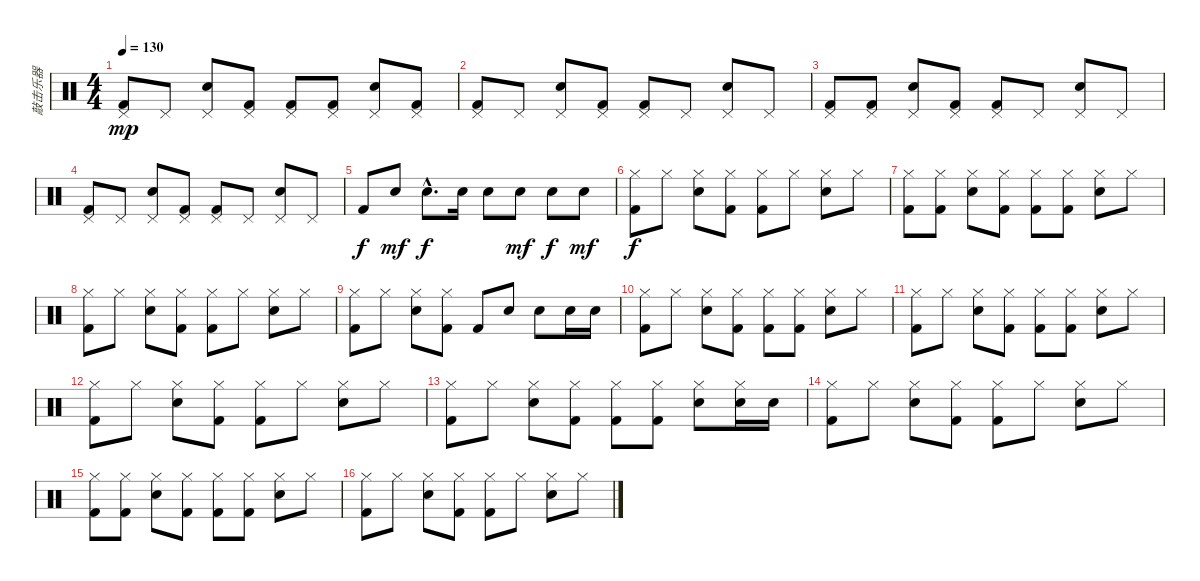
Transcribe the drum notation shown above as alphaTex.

\track ("敲击乐器" "敲击乐器") {instrument percussion}
\staff {score}
\articulation defaults
\ts (4 4)
\tempo 130
\clef neutral
\ks c
("Pedal Hi-Hat (hit)" "Kick (hit) 2").8{dy mp} "Pedal Hi-Hat (hit)".8 ("Pedal Hi-Hat (hit)" "Electric Snare (hit)").8 ("Pedal Hi-Hat (hit)" "Kick (hit) 2").8 ("Pedal Hi-Hat (hit)" "Kick (hit) 2").8 ("Pedal Hi-Hat (hit)" "Kick (hit) 2").8 ("Pedal Hi-Hat (hit)" "Electric Snare (hit)").8 ("Pedal Hi-Hat (hit)" "Kick (hit) 2").8 |
("Pedal Hi-Hat (hit)" "Kick (hit) 2").8 "Pedal Hi-Hat (hit)".8 ("Pedal Hi-Hat (hit)" "Electric Snare (hit)").8 ("Pedal Hi-Hat (hit)" "Kick (hit) 2").8 ("Pedal Hi-Hat (hit)" "Kick (hit) 2").8 "Pedal Hi-Hat (hit)".8 ("Pedal Hi-Hat (hit)" "Electric Snare (hit)").8 "Pedal Hi-Hat (hit)".8 |
("Pedal Hi-Hat (hit)" "Kick (hit) 2").8 ("Pedal Hi-Hat (hit)" "Kick (hit) 2").8 ("Pedal Hi-Hat (hit)" "Electric Snare (hit)").8 ("Pedal Hi-Hat (hit)" "Kick (hit) 2").8 ("Pedal Hi-Hat (hit)" "Kick (hit) 2").8 "Pedal Hi-Hat (hit)".8 ("Pedal Hi-Hat (hit)" "Electric Snare (hit)").8 "Pedal Hi-Hat (hit)".8 |
("Pedal Hi-Hat (hit)" "Kick (hit) 2").8 "Pedal Hi-Hat (hit)".8 ("Pedal Hi-Hat (hit)" "Electric Snare (hit)").8 ("Pedal Hi-Hat (hit)" "Kick (hit) 2").8 ("Pedal Hi-Hat (hit)" "Kick (hit) 2").8 "Pedal Hi-Hat (hit)".8 ("Pedal Hi-Hat (hit)" "Electric Snare (hit)").8 "Pedal Hi-Hat (hit)".8 |
"Kick (hit) 2".8{dy f} "Electric Snare (hit)".8{dy mf} "Electric Snare (hit)"{hac}.8{d dy f} "Electric Snare (hit)".16 "Electric Snare (hit)".8 "Electric Snare (hit)".8{dy mf} "Electric Snare (hit)".8{dy f} "Electric Snare (hit)".8{dy mf} |
("Hi-Hat (closed)" "Kick (hit) 2").8{dy f} "Hi-Hat (closed)".8 ("Hi-Hat (closed)" "Electric Snare (hit)").8 ("Hi-Hat (closed)" "Kick (hit) 2").8 ("Hi-Hat (closed)" "Kick (hit) 2").8 "Hi-Hat (closed)".8 ("Hi-Hat (closed)" "Electric Snare (hit)").8 "Hi-Hat (closed)".8 |
("Hi-Hat (closed)" "Kick (hit) 2").8 ("Hi-Hat (closed)" "Kick (hit) 2").8 ("Hi-Hat (closed)" "Electric Snare (hit)").8 ("Hi-Hat (closed)" "Kick (hit) 2").8 ("Hi-Hat (closed)" "Kick (hit) 2").8 ("Hi-Hat (closed)" "Kick (hit) 2").8 ("Hi-Hat (closed)" "Electric Snare (hit)").8 "Hi-Hat (closed)".8 |
("Hi-Hat (closed)" "Kick (hit) 2").8 "Hi-Hat (closed)".8 ("Hi-Hat (closed)" "Electric Snare (hit)").8 ("Hi-Hat (closed)" "Kick (hit) 2").8 ("Hi-Hat (closed)" "Kick (hit) 2").8 "Hi-Hat (closed)".8 ("Hi-Hat (closed)" "Electric Snare (hit)").8 "Hi-Hat (closed)".8 |
("Hi-Hat (closed)" "Kick (hit) 2").8 "Hi-Hat (closed)".8 ("Hi-Hat (closed)" "Electric Snare (hit)").8 ("Hi-Hat (closed)" "Kick (hit) 2").8 "Kick (hit) 2".8 "Electric Snare (hit)".8 "Electric Snare (hit)".8 "Electric Snare (hit)".16 "Electric Snare (hit)".16 |
("Hi-Hat (closed)" "Kick (hit) 2").8 "Hi-Hat (closed)".8 ("Hi-Hat (closed)" "Electric Snare (hit)").8 ("Hi-Hat (closed)" "Kick (hit) 2").8 ("Hi-Hat (closed)" "Kick (hit) 2").8 ("Hi-Hat (closed)" "Kick (hit) 2").8 ("Hi-Hat (closed)" "Electric Snare (hit)").8 "Hi-Hat (closed)".8 |
("Hi-Hat (closed)" "Kick (hit) 2").8 "Hi-Hat (closed)".8 ("Hi-Hat (closed)" "Electric Snare (hit)").8 ("Hi-Hat (closed)" "Kick (hit) 2").8 ("Hi-Hat (closed)" "Kick (hit) 2").8 ("Hi-Hat (closed)" "Kick (hit) 2").8 ("Hi-Hat (closed)" "Electric Snare (hit)").8 "Hi-Hat (closed)".8 |
("Hi-Hat (closed)" "Kick (hit) 2").8 "Hi-Hat (closed)".8 ("Hi-Hat (closed)" "Electric Snare (hit)").8 ("Hi-Hat (closed)" "Kick (hit) 2").8 ("Hi-Hat (closed)" "Kick (hit) 2").8 "Hi-Hat (closed)".8 ("Hi-Hat (closed)" "Electric Snare (hit)").8 "Hi-Hat (closed)".8 |
("Hi-Hat (closed)" "Kick (hit) 2").8 "Hi-Hat (closed)".8 ("Hi-Hat (closed)" "Electric Snare (hit)").8 ("Hi-Hat (closed)" "Kick (hit) 2").8 ("Hi-Hat (closed)" "Kick (hit) 2").8 ("Hi-Hat (closed)" "Kick (hit) 2").8 ("Hi-Hat (closed)" "Electric Snare (hit)").8 ("Hi-Hat (closed)" "Electric Snare (hit)").16 "Electric Snare (hit)".16 |
("Hi-Hat (closed)" "Kick (hit) 2").8 "Hi-Hat (closed)".8 ("Hi-Hat (closed)" "Electric Snare (hit)").8 ("Hi-Hat (closed)" "Kick (hit) 2").8 ("Hi-Hat (closed)" "Kick (hit) 2").8 "Hi-Hat (closed)".8 ("Hi-Hat (closed)" "Electric Snare (hit)").8 "Hi-Hat (closed)".8 |
("Hi-Hat (closed)" "Kick (hit) 2").8 ("Hi-Hat (closed)" "Kick (hit) 2").8 ("Hi-Hat (closed)" "Electric Snare (hit)").8 ("Hi-Hat (closed)" "Kick (hit) 2").8 ("Hi-Hat (closed)" "Kick (hit) 2").8 ("Hi-Hat (closed)" "Kick (hit) 2").8 ("Hi-Hat (closed)" "Electric Snare (hit)").8 "Hi-Hat (closed)".8 |
("Hi-Hat (closed)" "Kick (hit) 2").8 "Hi-Hat (closed)".8 ("Hi-Hat (closed)" "Electric Snare (hit)").8 ("Hi-Hat (closed)" "Kick (hit) 2").8 ("Hi-Hat (closed)" "Kick (hit) 2").8 "Hi-Hat (closed)".8 ("Hi-Hat (closed)" "Electric Snare (hit)").8 "Hi-Hat (closed)".8
